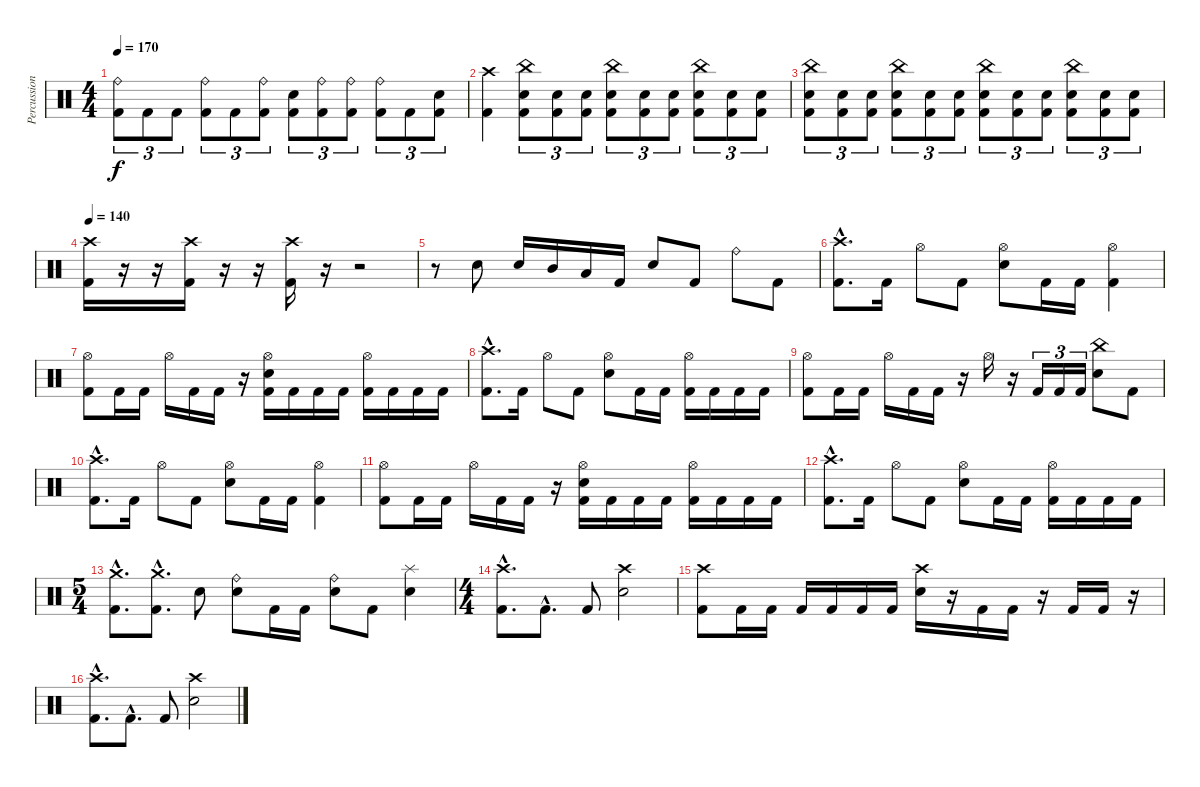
\track ("Percussion" "Percussion") {instrument percussion}
\staff {score}
\articulation defaults
\ts (4 4)
\tempo 170
\clef neutral
\ks c
("Ride (bell)" "Kick (hit) 2").8{tu (3 2) dy f} "Kick (hit) 2".8{tu (3 2)} "Kick (hit) 2".8{tu (3 2)} ("Ride (bell)" "Kick (hit) 2").8{tu (3 2)} "Kick (hit) 2".8{tu (3 2)} ("Ride (bell)" "Kick (hit) 2").8{tu (3 2)} ("Electric Snare (hit)" "Kick (hit) 2").8{tu (3 2)} ("Ride (bell)" "Kick (hit) 2").8{tu (3 2)} ("Ride (bell)" "Kick (hit) 2").8{tu (3 2)} ("Ride (bell)" "Kick (hit) 2").8{tu (3 2)} "Kick (hit) 2".8{tu (3 2)} ("Electric Snare (hit)" "Kick (hit) 2").8{tu (3 2)} |
("Crash high (hit)" "Kick (hit) 2").4 ("China (hit)" "Electric Snare (hit)" "Kick (hit) 2").8{tu (3 2)} ("Electric Snare (hit)" "Kick (hit) 2").8{tu (3 2)} ("Electric Snare (hit)" "Kick (hit) 2").8{tu (3 2)} ("China (hit)" "Electric Snare (hit)" "Kick (hit) 2").8{tu (3 2)} ("Electric Snare (hit)" "Kick (hit) 2").8{tu (3 2)} ("Electric Snare (hit)" "Kick (hit) 2").8{tu (3 2)} ("China (hit)" "Electric Snare (hit)" "Kick (hit) 2").8{tu (3 2)} ("Electric Snare (hit)" "Kick (hit) 2").8{tu (3 2)} ("Electric Snare (hit)" "Kick (hit) 2").8{tu (3 2)} |
("China (hit)" "Electric Snare (hit)" "Kick (hit) 2").8{tu (3 2)} ("Electric Snare (hit)" "Kick (hit) 2").8{tu (3 2)} ("Electric Snare (hit)" "Kick (hit) 2").8{tu (3 2)} ("China (hit)" "Electric Snare (hit)" "Kick (hit) 2").8{tu (3 2)} ("Electric Snare (hit)" "Kick (hit) 2").8{tu (3 2)} ("Electric Snare (hit)" "Kick (hit) 2").8{tu (3 2)} ("China (hit)" "Electric Snare (hit)" "Kick (hit) 2").8{tu (3 2)} ("Electric Snare (hit)" "Kick (hit) 2").8{tu (3 2)} ("Electric Snare (hit)" "Kick (hit) 2").8{tu (3 2)} ("China (hit)" "Electric Snare (hit)" "Kick (hit) 2").8{tu (3 2)} ("Electric Snare (hit)" "Kick (hit) 2").8{tu (3 2)} ("Electric Snare (hit)" "Kick (hit) 2").8{tu (3 2)} |
\tempo 150
\tempo 140
("Crash high (hit)" "Kick (hit) 2").16 r.16 r.16 ("Crash high (hit)" "Kick (hit) 2").16 r.16 r.16 ("Crash high (hit)" "Kick (hit) 2").16 r.16 r.2 |
r.8 "Electric Snare (hit)".8 "Electric Snare (hit)".16 "Mid Tom (hit)".16 "Low Tom (hit)".16 "Kick (hit) 2".16 "Electric Snare (hit)".8 "Kick (hit) 2".8 "Ride (bell)".8 "Kick (hit) 2".8 |
("Crash high (hit)"{hac} "Kick (hit) 2"{hac}).8{d} "Kick (hit) 2".16 "Hi-Hat (open)".8 "Kick (hit) 2".8 ("Hi-Hat (open)" "Electric Snare (hit)").8 "Kick (hit) 2".16 "Kick (hit) 2".16 ("Hi-Hat (open)" "Kick (hit) 2").4 |
("Hi-Hat (open)" "Kick (hit) 2").8 "Kick (hit) 2".16 "Kick (hit) 2".16 "Hi-Hat (open)".16 "Kick (hit) 2".16 "Kick (hit) 2".16 r.16 ("Hi-Hat (open)" "Electric Snare (hit)" "Kick (hit) 2").16 "Kick (hit) 2".16 "Kick (hit) 2".16 "Kick (hit) 2".16 ("Hi-Hat (open)" "Kick (hit) 2").16 "Kick (hit) 2".16 "Kick (hit) 2".16 "Kick (hit) 2".16 |
("Crash high (hit)"{hac} "Kick (hit) 2"{hac}).8{d} "Kick (hit) 2".16 "Hi-Hat (open)".8 "Kick (hit) 2".8 ("Hi-Hat (open)" "Electric Snare (hit)").8 "Kick (hit) 2".16 "Kick (hit) 2".16 ("Hi-Hat (open)" "Kick (hit) 2").16 "Kick (hit) 2".16 "Kick (hit) 2".16 "Kick (hit) 2".16 |
("Hi-Hat (open)" "Kick (hit) 2").8 "Kick (hit) 2".16 "Kick (hit) 2".16 "Hi-Hat (open)".16 "Kick (hit) 2".16 "Kick (hit) 2".16 r.16 "Hi-Hat (open)".16 r.16 "Kick (hit) 2".16{tu (3 2)} "Kick (hit) 2".16{tu (3 2)} "Kick (hit) 2".16{tu (3 2)} ("China (hit)" "Electric Snare (hit)").8 "Kick (hit) 2".8 |
("Crash high (hit)"{hac} "Kick (hit) 2"{hac}).8{d} "Kick (hit) 2".16 "Hi-Hat (open)".8 "Kick (hit) 2".8 ("Hi-Hat (open)" "Electric Snare (hit)").8 "Kick (hit) 2".16 "Kick (hit) 2".16 ("Hi-Hat (open)" "Kick (hit) 2").4 |
("Hi-Hat (open)" "Kick (hit) 2").8 "Kick (hit) 2".16 "Kick (hit) 2".16 "Hi-Hat (open)".16 "Kick (hit) 2".16 "Kick (hit) 2".16 r.16 ("Hi-Hat (open)" "Electric Snare (hit)" "Kick (hit) 2").16 "Kick (hit) 2".16 "Kick (hit) 2".16 "Kick (hit) 2".16 ("Hi-Hat (open)" "Kick (hit) 2").16 "Kick (hit) 2".16 "Kick (hit) 2".16 "Kick (hit) 2".16 |
("Crash high (hit)"{hac} "Kick (hit) 2"{hac}).8{d} "Kick (hit) 2".16 "Hi-Hat (open)".8 "Kick (hit) 2".8 ("Hi-Hat (open)" "Electric Snare (hit)").8 "Kick (hit) 2".16 "Kick (hit) 2".16 ("Hi-Hat (open)" "Kick (hit) 2").16 "Kick (hit) 2".16 "Kick (hit) 2".16 "Kick (hit) 2".16 |
\ts (5 4)
("Crash medium (hit)"{hac} "Kick (hit) 2"{hac}).8{d} ("Crash medium (hit)"{hac} "Kick (hit) 2"{hac}).8{d} "Electric Snare (hit)".8 ("Ride (bell)" "Electric Snare (hit)").8 "Kick (hit) 2".16 "Kick (hit) 2".16 ("Ride (bell)" "Electric Snare (hit)").8 "Kick (hit) 2".8 ("Splash (hit)" "Electric Snare (hit)").4 |
\ts (4 4)
("Crash high (hit)"{hac} "Kick (hit) 2"{hac}).8{d} "Kick (hit) 2"{hac}.8{d} "Kick (hit) 2".8 ("Crash high (hit)" "Electric Snare (hit)").2 |
("Crash high (hit)" "Kick (hit) 2").8 "Kick (hit) 2".16 "Kick (hit) 2".16 "Kick (hit) 2".16 "Kick (hit) 2".16 "Kick (hit) 2".16 "Kick (hit) 2".16 ("Crash high (hit)" "Electric Snare (hit)").16 r.16 "Kick (hit) 2".16 "Kick (hit) 2".16 r.16 "Kick (hit) 2".16 "Kick (hit) 2".16 r.16 |
("Crash high (hit)"{hac} "Kick (hit) 2"{hac}).8{d} "Kick (hit) 2"{hac}.8{d} "Kick (hit) 2".8 ("Crash high (hit)" "Electric Snare (hit)").2
